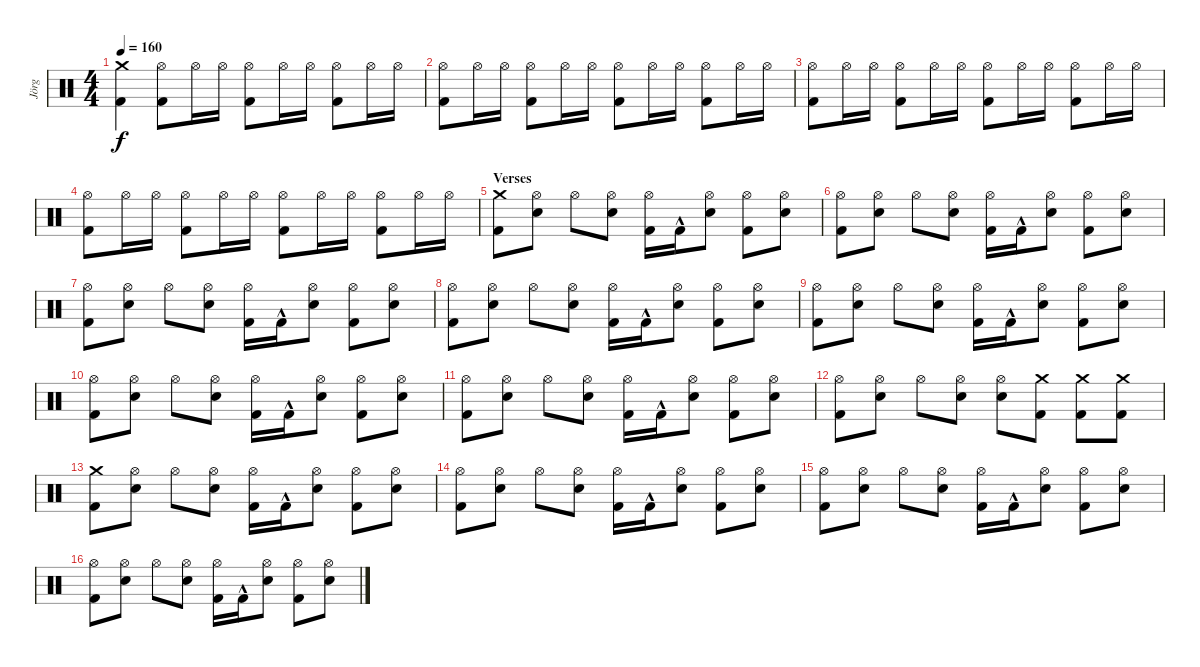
\track ("Jörg" "Jörg") {instrument percussion}
\staff {score}
\articulation defaults
\ts (4 4)
\tempo 160
\clef neutral
\ks c
("Crash medium (hit)" "Kick (hit) 2").4{dy f} ("Hi-Hat (open)" "Kick (hit) 2").8 "Hi-Hat (open)".16 "Hi-Hat (open)".16 ("Hi-Hat (open)" "Kick (hit) 2").8 "Hi-Hat (open)".16 "Hi-Hat (open)".16 ("Hi-Hat (open)" "Kick (hit) 2").8 "Hi-Hat (open)".16 "Hi-Hat (open)".16 |
("Hi-Hat (open)" "Kick (hit) 2").8 "Hi-Hat (open)".16 "Hi-Hat (open)".16 ("Hi-Hat (open)" "Kick (hit) 2").8 "Hi-Hat (open)".16 "Hi-Hat (open)".16 ("Hi-Hat (open)" "Kick (hit) 2").8 "Hi-Hat (open)".16 "Hi-Hat (open)".16 ("Hi-Hat (open)" "Kick (hit) 2").8 "Hi-Hat (open)".16 "Hi-Hat (open)".16 |
("Hi-Hat (open)" "Kick (hit) 2").8 "Hi-Hat (open)".16 "Hi-Hat (open)".16 ("Hi-Hat (open)" "Kick (hit) 2").8 "Hi-Hat (open)".16 "Hi-Hat (open)".16 ("Hi-Hat (open)" "Kick (hit) 2").8 "Hi-Hat (open)".16 "Hi-Hat (open)".16 ("Hi-Hat (open)" "Kick (hit) 2").8 "Hi-Hat (open)".16 "Hi-Hat (open)".16 |
("Hi-Hat (open)" "Kick (hit) 2").8 "Hi-Hat (open)".16 "Hi-Hat (open)".16 ("Hi-Hat (open)" "Kick (hit) 2").8 "Hi-Hat (open)".16 "Hi-Hat (open)".16 ("Hi-Hat (open)" "Kick (hit) 2").8 "Hi-Hat (open)".16 "Hi-Hat (open)".16 ("Hi-Hat (open)" "Kick (hit) 2").8 "Hi-Hat (open)".16 "Hi-Hat (open)".16 |
\section ("" "Verses")
("Kick (hit) 2" "Crash medium (hit)").8 ("Snare (hit) 2" "Hi-Hat (open)").8 "Hi-Hat (open)".8 ("Snare (hit) 2" "Hi-Hat (open)").8 ("Kick (hit) 2" "Hi-Hat (open)").16 "Kick (hit) 2"{hac}.16 ("Snare (hit) 2" "Hi-Hat (open)").8 ("Kick (hit) 2" "Hi-Hat (open)").8 ("Snare (hit) 2" "Hi-Hat (open)").8 |
("Hi-Hat (open)" "Kick (hit) 2").8 ("Snare (hit) 2" "Hi-Hat (open)").8 "Hi-Hat (open)".8 ("Snare (hit) 2" "Hi-Hat (open)").8 ("Kick (hit) 2" "Hi-Hat (open)").16 "Kick (hit) 2"{hac}.16 ("Snare (hit) 2" "Hi-Hat (open)").8 ("Kick (hit) 2" "Hi-Hat (open)").8 ("Snare (hit) 2" "Hi-Hat (open)").8 |
("Hi-Hat (open)" "Kick (hit) 2").8 ("Snare (hit) 2" "Hi-Hat (open)").8 "Hi-Hat (open)".8 ("Snare (hit) 2" "Hi-Hat (open)").8 ("Kick (hit) 2" "Hi-Hat (open)").16 "Kick (hit) 2"{hac}.16 ("Snare (hit) 2" "Hi-Hat (open)").8 ("Kick (hit) 2" "Hi-Hat (open)").8 ("Snare (hit) 2" "Hi-Hat (open)").8 |
("Hi-Hat (open)" "Kick (hit) 2").8 ("Snare (hit) 2" "Hi-Hat (open)").8 "Hi-Hat (open)".8 ("Snare (hit) 2" "Hi-Hat (open)").8 ("Kick (hit) 2" "Hi-Hat (open)").16 "Kick (hit) 2"{hac}.16 ("Snare (hit) 2" "Hi-Hat (open)").8 ("Kick (hit) 2" "Hi-Hat (open)").8 ("Snare (hit) 2" "Hi-Hat (open)").8 |
("Hi-Hat (open)" "Kick (hit) 2").8 ("Snare (hit) 2" "Hi-Hat (open)").8 "Hi-Hat (open)".8 ("Snare (hit) 2" "Hi-Hat (open)").8 ("Kick (hit) 2" "Hi-Hat (open)").16 "Kick (hit) 2"{hac}.16 ("Snare (hit) 2" "Hi-Hat (open)").8 ("Kick (hit) 2" "Hi-Hat (open)").8 ("Snare (hit) 2" "Hi-Hat (open)").8 |
("Hi-Hat (open)" "Kick (hit) 2").8 ("Snare (hit) 2" "Hi-Hat (open)").8 "Hi-Hat (open)".8 ("Snare (hit) 2" "Hi-Hat (open)").8 ("Kick (hit) 2" "Hi-Hat (open)").16 "Kick (hit) 2"{hac}.16 ("Snare (hit) 2" "Hi-Hat (open)").8 ("Kick (hit) 2" "Hi-Hat (open)").8 ("Snare (hit) 2" "Hi-Hat (open)").8 |
("Hi-Hat (open)" "Kick (hit) 2").8 ("Snare (hit) 2" "Hi-Hat (open)").8 "Hi-Hat (open)".8 ("Snare (hit) 2" "Hi-Hat (open)").8 ("Kick (hit) 2" "Hi-Hat (open)").16 "Kick (hit) 2"{hac}.16 ("Snare (hit) 2" "Hi-Hat (open)").8 ("Kick (hit) 2" "Hi-Hat (open)").8 ("Snare (hit) 2" "Hi-Hat (open)").8 |
("Hi-Hat (open)" "Kick (hit) 2").8 ("Snare (hit) 2" "Hi-Hat (open)").8 "Hi-Hat (open)".8 ("Snare (hit) 2" "Hi-Hat (open)").8 ("Snare (hit) 2" "Hi-Hat (open)").8 ("Kick (hit) 2" "Crash medium (hit)").8 ("Crash medium (hit)" "Kick (hit) 2").8 ("Kick (hit) 2" "Crash medium (hit)").8 |
("Kick (hit) 2" "Crash medium (hit)").8 ("Snare (hit) 2" "Hi-Hat (open)").8 "Hi-Hat (open)".8 ("Snare (hit) 2" "Hi-Hat (open)").8 ("Kick (hit) 2" "Hi-Hat (open)").16 "Kick (hit) 2"{hac}.16 ("Snare (hit) 2" "Hi-Hat (open)").8 ("Kick (hit) 2" "Hi-Hat (open)").8 ("Snare (hit) 2" "Hi-Hat (open)").8 |
("Hi-Hat (open)" "Kick (hit) 2").8 ("Snare (hit) 2" "Hi-Hat (open)").8 "Hi-Hat (open)".8 ("Snare (hit) 2" "Hi-Hat (open)").8 ("Kick (hit) 2" "Hi-Hat (open)").16 "Kick (hit) 2"{hac}.16 ("Snare (hit) 2" "Hi-Hat (open)").8 ("Kick (hit) 2" "Hi-Hat (open)").8 ("Snare (hit) 2" "Hi-Hat (open)").8 |
("Hi-Hat (open)" "Kick (hit) 2").8 ("Snare (hit) 2" "Hi-Hat (open)").8 "Hi-Hat (open)".8 ("Snare (hit) 2" "Hi-Hat (open)").8 ("Kick (hit) 2" "Hi-Hat (open)").16 "Kick (hit) 2"{hac}.16 ("Snare (hit) 2" "Hi-Hat (open)").8 ("Kick (hit) 2" "Hi-Hat (open)").8 ("Snare (hit) 2" "Hi-Hat (open)").8 |
("Hi-Hat (open)" "Kick (hit) 2").8 ("Snare (hit) 2" "Hi-Hat (open)").8 "Hi-Hat (open)".8 ("Snare (hit) 2" "Hi-Hat (open)").8 ("Kick (hit) 2" "Hi-Hat (open)").16 "Kick (hit) 2"{hac}.16 ("Snare (hit) 2" "Hi-Hat (open)").8 ("Kick (hit) 2" "Hi-Hat (open)").8 ("Snare (hit) 2" "Hi-Hat (open)").8
